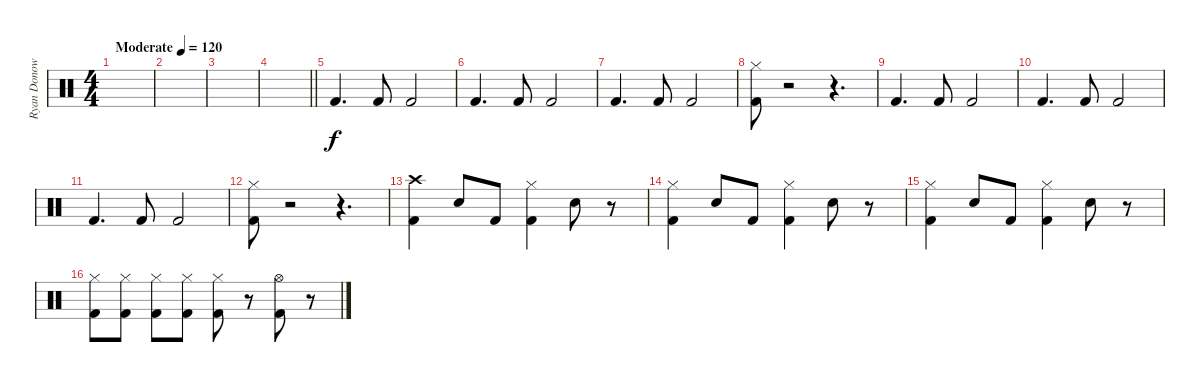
\track ("Ryan Donowho" "Ryan Donow") {instrument percussion}
\staff {score}
\articulation defaults
\ts (4 4)
\tempo (120 "Moderate")
\clef neutral
\ks c
|
|
|
\barLineRight lightlight
|
"Kick (hit) 2".4{d} "Kick (hit) 2".8 "Kick (hit) 2".2 |
"Kick (hit) 2".4{d} "Kick (hit) 2".8 "Kick (hit) 2".2 |
"Kick (hit) 2".4{d} "Kick (hit) 2".8 "Kick (hit) 2".2 |
("Hi-Hat (closed)" "Kick (hit) 2").8 r.2 r.4{d} |
"Kick (hit) 2".4{d} "Kick (hit) 2".8 "Kick (hit) 2".2 |
"Kick (hit) 2".4{d} "Kick (hit) 2".8 "Kick (hit) 2".2 |
"Kick (hit) 2".4{d} "Kick (hit) 2".8 "Kick (hit) 2".2 |
("Hi-Hat (closed)" "Kick (hit) 2").8 r.2 r.4{d} |
("Crash high (hit)" "Kick (hit) 2").4 "Snare (hit) 2".8 "Kick (hit) 2".8 ("Hi-Hat (closed)" "Kick (hit) 2").4 "Snare (hit) 2".8 r.8 |
("Hi-Hat (closed)" "Kick (hit) 2").4 "Snare (hit) 2".8 "Kick (hit) 2".8 ("Hi-Hat (closed)" "Kick (hit) 2").4 "Snare (hit) 2".8 r.8 |
("Hi-Hat (closed)" "Kick (hit) 2").4 "Snare (hit) 2".8 "Kick (hit) 2".8 ("Hi-Hat (closed)" "Kick (hit) 2").4 "Snare (hit) 2".8 r.8 |
("Hi-Hat (closed)" "Kick (hit) 2").8 ("Hi-Hat (closed)" "Kick (hit) 2").8 ("Hi-Hat (closed)" "Kick (hit) 2").8 ("Hi-Hat (closed)" "Kick (hit) 2").8 ("Hi-Hat (closed)" "Kick (hit) 2").8 r.8 ("Hi-Hat (open)" "Kick (hit) 2").8 r.8
